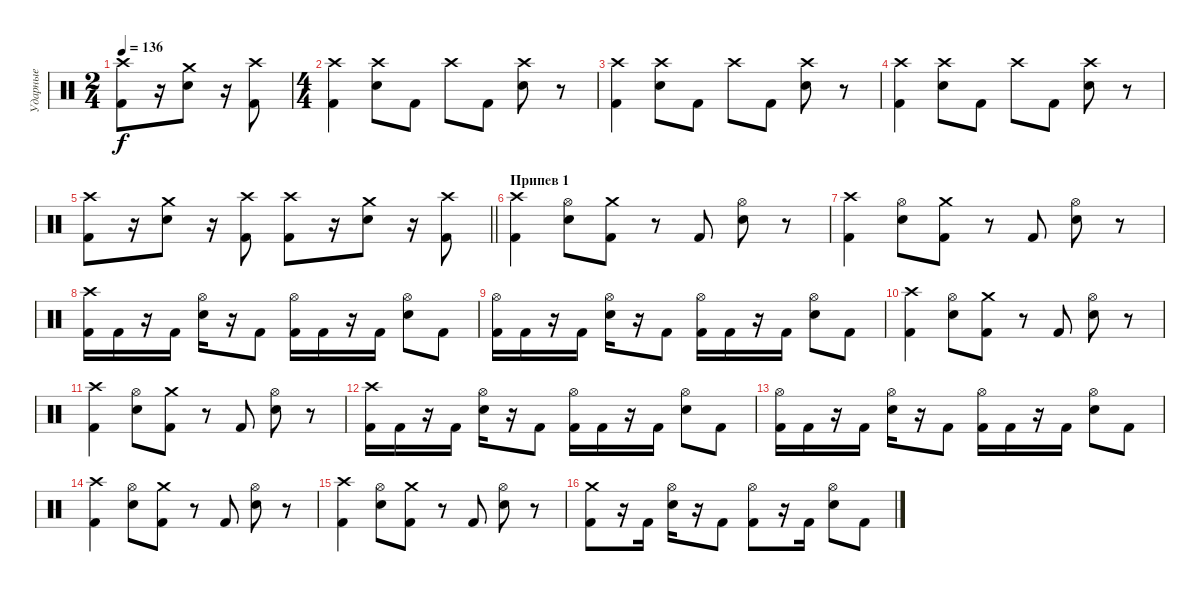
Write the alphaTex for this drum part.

\track ("Ударные" "Ударные") {instrument percussion}
\staff {score}
\articulation defaults
\ts (2 4)
\tempo 136
\clef neutral
\ks c
("Crash high (hit)" "Kick (hit) 2").8{dy f} r.16 ("Crash medium (hit)" "Snare (hit) 2").8 r.16 ("Crash high (hit)" "Kick (hit) 2").8 |
\ts (4 4)
("Crash high (hit)" "Kick (hit) 2").4 ("Crash high (hit)" "Snare (hit) 2").8 "Kick (hit) 2".8 "Crash high (hit)".8 "Kick (hit) 2".8 ("Crash high (hit)" "Snare (hit) 2").8 r.8 |
("Crash high (hit)" "Kick (hit) 2").4 ("Crash high (hit)" "Snare (hit) 2").8 "Kick (hit) 2".8 "Crash high (hit)".8 "Kick (hit) 2".8 ("Crash high (hit)" "Snare (hit) 2").8 r.8 |
("Crash high (hit)" "Kick (hit) 2").4 ("Crash high (hit)" "Snare (hit) 2").8 "Kick (hit) 2".8 "Crash high (hit)".8 "Kick (hit) 2".8 ("Crash high (hit)" "Snare (hit) 2").8 r.8 |
\barLineRight lightlight
("Crash high (hit)" "Kick (hit) 2").8 r.16 ("Crash medium (hit)" "Snare (hit) 2").8 r.16 ("Crash high (hit)" "Kick (hit) 2").8 ("Crash high (hit)" "Kick (hit) 2").8 r.16 ("Crash medium (hit)" "Snare (hit) 2").8 r.16 ("Crash high (hit)" "Kick (hit) 2").8 |
\section ("" "Припев 1")
("Crash high (hit)" "Kick (hit) 2").4 ("Hi-Hat (open)" "Snare (hit) 2").8 ("Crash medium (hit)" "Kick (hit) 2").8 r.8 "Kick (hit) 2".8 ("Hi-Hat (open)" "Snare (hit) 2").8 r.8 |
("Crash high (hit)" "Kick (hit) 2").4 ("Hi-Hat (open)" "Snare (hit) 2").8 ("Crash medium (hit)" "Kick (hit) 2").8 r.8 "Kick (hit) 2".8 ("Hi-Hat (open)" "Snare (hit) 2").8 r.8 |
("Crash high (hit)" "Kick (hit) 2").16 "Kick (hit) 2".16 r.16 "Kick (hit) 2".16 ("Hi-Hat (open)" "Snare (hit) 2").16 r.16 "Kick (hit) 2".8 ("Hi-Hat (open)" "Kick (hit) 2").16 "Kick (hit) 2".16 r.16 "Kick (hit) 2".16 ("Hi-Hat (open)" "Snare (hit) 2").8 "Kick (hit) 2".8 |
("Hi-Hat (open)" "Kick (hit) 2").16 "Kick (hit) 2".16 r.16 "Kick (hit) 2".16 ("Hi-Hat (open)" "Snare (hit) 2").16 r.16 "Kick (hit) 2".8 ("Hi-Hat (open)" "Kick (hit) 2").16 "Kick (hit) 2".16 r.16 "Kick (hit) 2".16 ("Hi-Hat (open)" "Snare (hit) 2").8 "Kick (hit) 2".8 |
("Crash high (hit)" "Kick (hit) 2").4 ("Hi-Hat (open)" "Snare (hit) 2").8 ("Crash medium (hit)" "Kick (hit) 2").8 r.8 "Kick (hit) 2".8 ("Hi-Hat (open)" "Snare (hit) 2").8 r.8 |
("Crash high (hit)" "Kick (hit) 2").4 ("Hi-Hat (open)" "Snare (hit) 2").8 ("Crash medium (hit)" "Kick (hit) 2").8 r.8 "Kick (hit) 2".8 ("Hi-Hat (open)" "Snare (hit) 2").8 r.8 |
("Crash high (hit)" "Kick (hit) 2").16 "Kick (hit) 2".16 r.16 "Kick (hit) 2".16 ("Hi-Hat (open)" "Snare (hit) 2").16 r.16 "Kick (hit) 2".8 ("Hi-Hat (open)" "Kick (hit) 2").16 "Kick (hit) 2".16 r.16 "Kick (hit) 2".16 ("Hi-Hat (open)" "Snare (hit) 2").8 "Kick (hit) 2".8 |
("Hi-Hat (open)" "Kick (hit) 2").16 "Kick (hit) 2".16 r.16 "Kick (hit) 2".16 ("Hi-Hat (open)" "Snare (hit) 2").16 r.16 "Kick (hit) 2".8 ("Hi-Hat (open)" "Kick (hit) 2").16 "Kick (hit) 2".16 r.16 "Kick (hit) 2".16 ("Hi-Hat (open)" "Snare (hit) 2").8 "Kick (hit) 2".8 |
("Crash high (hit)" "Kick (hit) 2").4 ("Hi-Hat (open)" "Snare (hit) 2").8 ("Crash medium (hit)" "Kick (hit) 2").8 r.8 "Kick (hit) 2".8 ("Hi-Hat (open)" "Snare (hit) 2").8 r.8 |
("Crash high (hit)" "Kick (hit) 2").4 ("Hi-Hat (open)" "Snare (hit) 2").8 ("Crash medium (hit)" "Kick (hit) 2").8 r.8 "Kick (hit) 2".8 ("Hi-Hat (open)" "Snare (hit) 2").8 r.8 |
("Crash medium (hit)" "Kick (hit) 2").8 r.16 "Kick (hit) 2".16 ("Hi-Hat (open)" "Snare (hit) 2").16 r.16 "Kick (hit) 2".8 ("Hi-Hat (open)" "Kick (hit) 2").8 r.16 "Kick (hit) 2".16 ("Hi-Hat (open)" "Snare (hit) 2").8 "Kick (hit) 2".8
